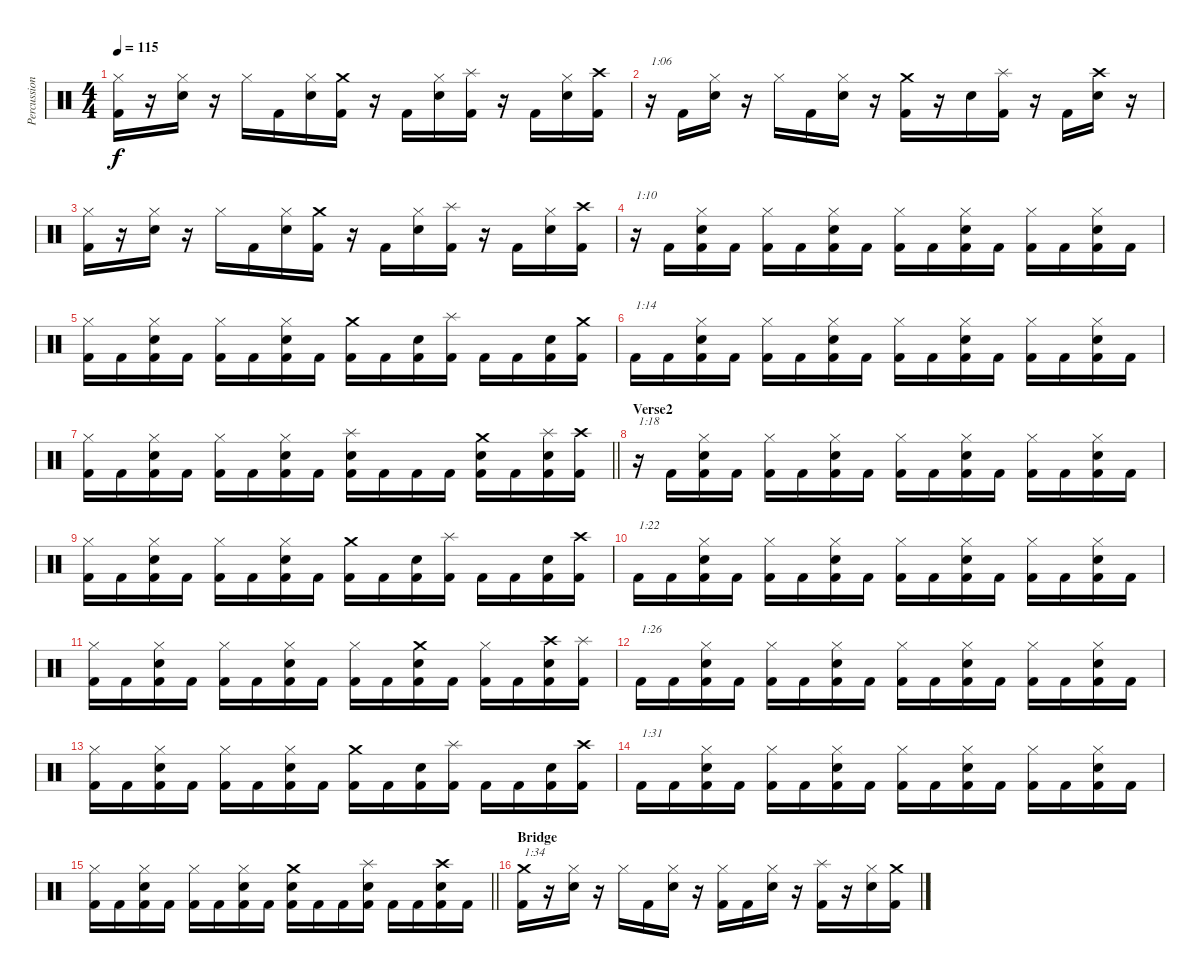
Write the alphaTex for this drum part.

\track ("Percussion" "Percussion") {instrument percussion}
\staff {score}
\articulation defaults
\ts (4 4)
\tempo 115
\clef neutral
\ks c
("Hi-Hat (closed)" "Kick (hit) 2").16{dy f} r.16 ("Hi-Hat (closed)" "Electric Snare (hit)").16 r.16 "Hi-Hat (closed)".16 "Kick (hit) 2".16 ("Hi-Hat (closed)" "Electric Snare (hit)").16 ("Crash medium (hit)" "Kick (hit) 2").16 r.16 "Kick (hit) 2".16 ("Hi-Hat (closed)" "Electric Snare (hit)").16 ("Splash (hit)" "Kick (hit) 2").16 r.16 "Kick (hit) 2".16 ("Hi-Hat (closed)" "Electric Snare (hit)").16 ("Crash high (hit)" "Kick (hit) 2").16 |
r.16{txt "1:06"} "Kick (hit) 2".16 ("Hi-Hat (closed)" "Electric Snare (hit)").16 r.16 "Hi-Hat (closed)".16 "Kick (hit) 2".16 ("Hi-Hat (closed)" "Electric Snare (hit)").16 r.16 ("Crash medium (hit)" "Kick (hit) 2").16 r.16 "Electric Snare (hit)".16 ("Splash (hit)" "Kick (hit) 2").16 r.16 "Kick (hit) 2".16 ("Crash high (hit)" "Electric Snare (hit)").16 r.16 |
("Hi-Hat (closed)" "Kick (hit) 2").16 r.16 ("Hi-Hat (closed)" "Electric Snare (hit)").16 r.16 "Hi-Hat (closed)".16 "Kick (hit) 2".16 ("Hi-Hat (closed)" "Electric Snare (hit)").16 ("Crash medium (hit)" "Kick (hit) 2").16 r.16 "Kick (hit) 2".16 ("Hi-Hat (closed)" "Electric Snare (hit)").16 ("Splash (hit)" "Kick (hit) 2").16 r.16 "Kick (hit) 2".16 ("Hi-Hat (closed)" "Electric Snare (hit)").16 ("Crash high (hit)" "Kick (hit) 2").16 |
r.16{txt "1:10"} "Kick (hit) 2".16 ("Hi-Hat (closed)" "Electric Snare (hit)" "Kick (hit) 2").16 "Kick (hit) 2".16 ("Hi-Hat (closed)" "Kick (hit) 2").16 "Kick (hit) 2".16 ("Hi-Hat (closed)" "Electric Snare (hit)" "Kick (hit) 2").16 "Kick (hit) 2".16 ("Hi-Hat (closed)" "Kick (hit) 2").16 "Kick (hit) 2".16 ("Hi-Hat (closed)" "Electric Snare (hit)" "Kick (hit) 2").16 "Kick (hit) 2".16 ("Hi-Hat (closed)" "Kick (hit) 2").16 "Kick (hit) 2".16 ("Hi-Hat (closed)" "Electric Snare (hit)" "Kick (hit) 2").16 "Kick (hit) 2".16 |
("Hi-Hat (closed)" "Kick (hit) 2").16 "Kick (hit) 2".16 ("Hi-Hat (closed)" "Electric Snare (hit)" "Kick (hit) 2").16 "Kick (hit) 2".16 ("Hi-Hat (closed)" "Kick (hit) 2").16 "Kick (hit) 2".16 ("Hi-Hat (closed)" "Electric Snare (hit)" "Kick (hit) 2").16 "Kick (hit) 2".16 ("Crash medium (hit)" "Kick (hit) 2").16 "Kick (hit) 2".16 ("Electric Snare (hit)" "Kick (hit) 2").16 ("Splash (hit)" "Kick (hit) 2").16 "Kick (hit) 2".16 "Kick (hit) 2".16 ("Electric Snare (hit)" "Kick (hit) 2").16 ("Crash medium (hit)" "Kick (hit) 2").16 |
"Kick (hit) 2".16{txt "1:14"} "Kick (hit) 2".16 ("Hi-Hat (closed)" "Electric Snare (hit)" "Kick (hit) 2").16 "Kick (hit) 2".16 ("Hi-Hat (closed)" "Kick (hit) 2").16 "Kick (hit) 2".16 ("Hi-Hat (closed)" "Electric Snare (hit)" "Kick (hit) 2").16 "Kick (hit) 2".16 ("Hi-Hat (closed)" "Kick (hit) 2").16 "Kick (hit) 2".16 ("Hi-Hat (closed)" "Electric Snare (hit)" "Kick (hit) 2").16 "Kick (hit) 2".16 ("Hi-Hat (closed)" "Kick (hit) 2").16 "Kick (hit) 2".16 ("Hi-Hat (closed)" "Electric Snare (hit)" "Kick (hit) 2").16 "Kick (hit) 2".16 |
\barLineRight lightlight
("Hi-Hat (closed)" "Kick (hit) 2").16 "Kick (hit) 2".16 ("Hi-Hat (closed)" "Electric Snare (hit)" "Kick (hit) 2").16 "Kick (hit) 2".16 ("Hi-Hat (closed)" "Kick (hit) 2").16 "Kick (hit) 2".16 ("Hi-Hat (closed)" "Electric Snare (hit)" "Kick (hit) 2").16 "Kick (hit) 2".16 ("Splash (hit)" "Electric Snare (hit)" "Kick (hit) 2").16 "Kick (hit) 2".16 "Kick (hit) 2".16 "Kick (hit) 2".16 ("Crash medium (hit)" "Electric Snare (hit)" "Kick (hit) 2").16 "Kick (hit) 2".16 ("Splash (hit)" "Electric Snare (hit)" "Kick (hit) 2").16 ("Crash high (hit)" "Kick (hit) 2").16 |
\section ("" "Verse2")
r.16{txt "1:18"} "Kick (hit) 2".16 ("Hi-Hat (closed)" "Electric Snare (hit)" "Kick (hit) 2").16 "Kick (hit) 2".16 ("Hi-Hat (closed)" "Kick (hit) 2").16 "Kick (hit) 2".16 ("Hi-Hat (closed)" "Electric Snare (hit)" "Kick (hit) 2").16 "Kick (hit) 2".16 ("Hi-Hat (closed)" "Kick (hit) 2").16 "Kick (hit) 2".16 ("Hi-Hat (closed)" "Electric Snare (hit)" "Kick (hit) 2").16 "Kick (hit) 2".16 ("Hi-Hat (closed)" "Kick (hit) 2").16 "Kick (hit) 2".16 ("Hi-Hat (closed)" "Electric Snare (hit)" "Kick (hit) 2").16 "Kick (hit) 2".16 |
("Hi-Hat (closed)" "Kick (hit) 2").16 "Kick (hit) 2".16 ("Hi-Hat (closed)" "Electric Snare (hit)" "Kick (hit) 2").16 "Kick (hit) 2".16 ("Hi-Hat (closed)" "Kick (hit) 2").16 "Kick (hit) 2".16 ("Hi-Hat (closed)" "Electric Snare (hit)" "Kick (hit) 2").16 "Kick (hit) 2".16 ("Crash medium (hit)" "Kick (hit) 2").16 "Kick (hit) 2".16 ("Electric Snare (hit)" "Kick (hit) 2").16 ("Splash (hit)" "Kick (hit) 2").16 "Kick (hit) 2".16 "Kick (hit) 2".16 ("Electric Snare (hit)" "Kick (hit) 2").16 ("Crash high (hit)" "Kick (hit) 2").16 |
"Kick (hit) 2".16{txt "1:22"} "Kick (hit) 2".16 ("Hi-Hat (closed)" "Electric Snare (hit)" "Kick (hit) 2").16 "Kick (hit) 2".16 ("Hi-Hat (closed)" "Kick (hit) 2").16 "Kick (hit) 2".16 ("Hi-Hat (closed)" "Electric Snare (hit)" "Kick (hit) 2").16 "Kick (hit) 2".16 ("Hi-Hat (closed)" "Kick (hit) 2").16 "Kick (hit) 2".16 ("Hi-Hat (closed)" "Electric Snare (hit)" "Kick (hit) 2").16 "Kick (hit) 2".16 ("Hi-Hat (closed)" "Kick (hit) 2").16 "Kick (hit) 2".16 ("Hi-Hat (closed)" "Electric Snare (hit)" "Kick (hit) 2").16 "Kick (hit) 2".16 |
("Hi-Hat (closed)" "Kick (hit) 2").16 "Kick (hit) 2".16 ("Hi-Hat (closed)" "Electric Snare (hit)" "Kick (hit) 2").16 "Kick (hit) 2".16 ("Hi-Hat (closed)" "Kick (hit) 2").16 "Kick (hit) 2".16 ("Hi-Hat (closed)" "Electric Snare (hit)" "Kick (hit) 2").16 "Kick (hit) 2".16 ("Hi-Hat (closed)" "Kick (hit) 2").16 "Kick (hit) 2".16 ("Crash medium (hit)" "Electric Snare (hit)" "Kick (hit) 2").16 "Kick (hit) 2".16 ("Hi-Hat (closed)" "Kick (hit) 2").16 "Kick (hit) 2".16 ("Crash high (hit)" "Electric Snare (hit)" "Kick (hit) 2").16 ("Splash (hit)" "Kick (hit) 2").16 |
"Kick (hit) 2".16{txt "1:26"} "Kick (hit) 2".16 ("Hi-Hat (closed)" "Electric Snare (hit)" "Kick (hit) 2").16 "Kick (hit) 2".16 ("Hi-Hat (closed)" "Kick (hit) 2").16 "Kick (hit) 2".16 ("Hi-Hat (closed)" "Electric Snare (hit)" "Kick (hit) 2").16 "Kick (hit) 2".16 ("Hi-Hat (closed)" "Kick (hit) 2").16 "Kick (hit) 2".16 ("Hi-Hat (closed)" "Electric Snare (hit)" "Kick (hit) 2").16 "Kick (hit) 2".16 ("Hi-Hat (closed)" "Kick (hit) 2").16 "Kick (hit) 2".16 ("Hi-Hat (closed)" "Electric Snare (hit)" "Kick (hit) 2").16 "Kick (hit) 2".16 |
("Hi-Hat (closed)" "Kick (hit) 2").16 "Kick (hit) 2".16 ("Hi-Hat (closed)" "Electric Snare (hit)" "Kick (hit) 2").16 "Kick (hit) 2".16 ("Hi-Hat (closed)" "Kick (hit) 2").16 "Kick (hit) 2".16 ("Hi-Hat (closed)" "Electric Snare (hit)" "Kick (hit) 2").16 "Kick (hit) 2".16 ("Crash medium (hit)" "Kick (hit) 2").16 "Kick (hit) 2".16 ("Electric Snare (hit)" "Kick (hit) 2").16 ("Splash (hit)" "Kick (hit) 2").16 "Kick (hit) 2".16 "Kick (hit) 2".16 ("Electric Snare (hit)" "Kick (hit) 2").16 ("Crash high (hit)" "Kick (hit) 2").16 |
"Kick (hit) 2".16{txt "1:31"} "Kick (hit) 2".16 ("Hi-Hat (closed)" "Electric Snare (hit)" "Kick (hit) 2").16 "Kick (hit) 2".16 ("Hi-Hat (closed)" "Kick (hit) 2").16 "Kick (hit) 2".16 ("Hi-Hat (closed)" "Electric Snare (hit)" "Kick (hit) 2").16 "Kick (hit) 2".16 ("Hi-Hat (closed)" "Kick (hit) 2").16 "Kick (hit) 2".16 ("Hi-Hat (closed)" "Electric Snare (hit)" "Kick (hit) 2").16 "Kick (hit) 2".16 ("Hi-Hat (closed)" "Kick (hit) 2").16 "Kick (hit) 2".16 ("Hi-Hat (closed)" "Electric Snare (hit)" "Kick (hit) 2").16 "Kick (hit) 2".16 |
\barLineRight lightlight
("Hi-Hat (closed)" "Kick (hit) 2").16 "Kick (hit) 2".16 ("Hi-Hat (closed)" "Electric Snare (hit)" "Kick (hit) 2").16 "Kick (hit) 2".16 ("Hi-Hat (closed)" "Kick (hit) 2").16 "Kick (hit) 2".16 ("Hi-Hat (closed)" "Electric Snare (hit)" "Kick (hit) 2").16 "Kick (hit) 2".16 ("Crash medium (hit)" "Electric Snare (hit)" "Kick (hit) 2").16 "Kick (hit) 2".16 "Kick (hit) 2".16 ("Splash (hit)" "Electric Snare (hit)" "Kick (hit) 2").16 "Kick (hit) 2".16 "Kick (hit) 2".16 ("Crash high (hit)" "Electric Snare (hit)" "Kick (hit) 2").16 "Kick (hit) 2".16 |
\section ("" "Bridge")
("Crash medium (hit)" "Kick (hit) 2").16{txt "1:34"} r.16 ("Hi-Hat (closed)" "Electric Snare (hit)").16 r.16 "Hi-Hat (closed)".16 "Kick (hit) 2".16 ("Hi-Hat (closed)" "Electric Snare (hit)").16 r.16 ("Hi-Hat (closed)" "Kick (hit) 2").16 "Kick (hit) 2".16 ("Hi-Hat (closed)" "Electric Snare (hit)").16 r.16 ("Splash (hit)" "Kick (hit) 2").16 r.16 ("Hi-Hat (closed)" "Electric Snare (hit)").16 ("Crash medium (hit)" "Kick (hit) 2").16
